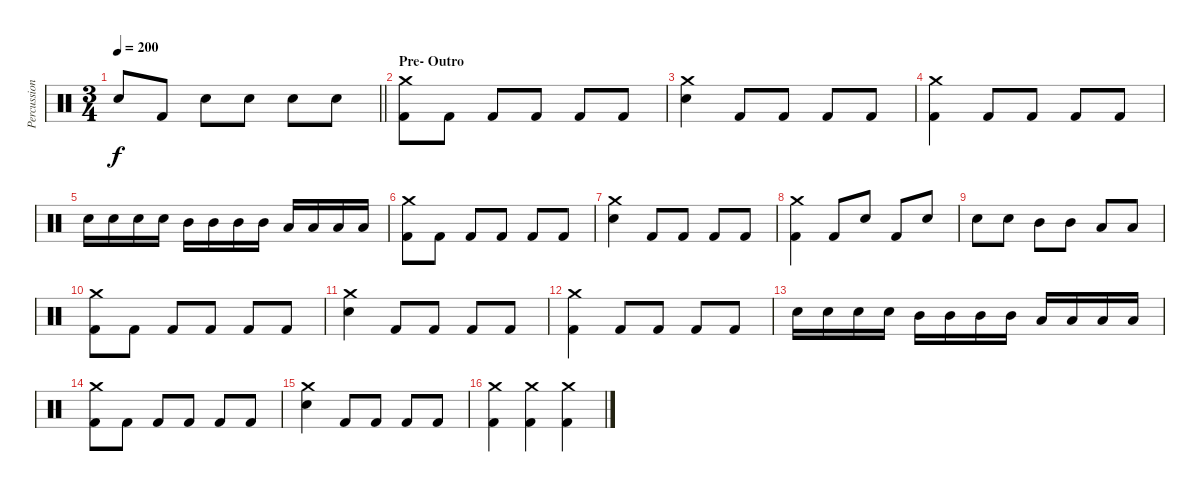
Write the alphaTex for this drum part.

\track ("Percussion" "Percussion") {instrument percussion}
\staff {score}
\articulation defaults
\ts (3 4)
\tempo 200
\clef neutral
\barLineRight lightlight
\ks c "Snare (hit) 2".8{dy f} "Kick (hit) 2".8 "Snare (hit) 2".8 "Snare (hit) 2".8 "Snare (hit) 2".8 "Snare (hit) 2".8
|
\section ("" "Pre- Outro")
("Crash medium (hit)" "Kick (hit) 2").8 "Kick (hit) 2".8 "Kick (hit) 2".8 "Kick (hit) 2".8 "Kick (hit) 2".8 "Kick (hit) 2".8 |
("Crash medium (hit)" "Snare (hit) 2").4 "Kick (hit) 2".8 "Kick (hit) 2".8 "Kick (hit) 2".8 "Kick (hit) 2".8 |
("Crash medium (hit)" "Kick (hit) 2").4 "Kick (hit) 2".8 "Kick (hit) 2".8 "Kick (hit) 2".8 "Kick (hit) 2".8 |
"Snare (hit) 2".16 "Snare (hit) 2".16 "Snare (hit) 2".16 "Snare (hit) 2".16 "Mid Tom (hit)".16 "Mid Tom (hit)".16 "Mid Tom (hit)".16 "Mid Tom (hit)".16 "Low Tom (hit)".16 "Low Tom (hit)".16 "Low Tom (hit)".16 "Low Tom (hit)".16 |
("Crash medium (hit)" "Kick (hit) 2").8 "Kick (hit) 2".8 "Kick (hit) 2".8 "Kick (hit) 2".8 "Kick (hit) 2".8 "Kick (hit) 2".8 |
("Crash medium (hit)" "Snare (hit) 2").4 "Kick (hit) 2".8 "Kick (hit) 2".8 "Kick (hit) 2".8 "Kick (hit) 2".8 |
("Crash medium (hit)" "Kick (hit) 2").4 "Kick (hit) 2".8 "Snare (hit) 2".8 "Kick (hit) 2".8 "Snare (hit) 2".8 |
"Snare (hit) 2".8 "Snare (hit) 2".8 "Mid Tom (hit)".8 "Mid Tom (hit)".8 "Low Tom (hit)".8 "Low Tom (hit)".8 |
("Crash medium (hit)" "Kick (hit) 2").8 "Kick (hit) 2".8 "Kick (hit) 2".8 "Kick (hit) 2".8 "Kick (hit) 2".8 "Kick (hit) 2".8 |
("Crash medium (hit)" "Snare (hit) 2").4 "Kick (hit) 2".8 "Kick (hit) 2".8 "Kick (hit) 2".8 "Kick (hit) 2".8 |
("Crash medium (hit)" "Kick (hit) 2").4 "Kick (hit) 2".8 "Kick (hit) 2".8 "Kick (hit) 2".8 "Kick (hit) 2".8 |
"Snare (hit) 2".16 "Snare (hit) 2".16 "Snare (hit) 2".16 "Snare (hit) 2".16 "Mid Tom (hit)".16 "Mid Tom (hit)".16 "Mid Tom (hit)".16 "Mid Tom (hit)".16 "Low Tom (hit)".16 "Low Tom (hit)".16 "Low Tom (hit)".16 "Low Tom (hit)".16 |
("Crash medium (hit)" "Kick (hit) 2").8 "Kick (hit) 2".8 "Kick (hit) 2".8 "Kick (hit) 2".8 "Kick (hit) 2".8 "Kick (hit) 2".8 |
("Crash medium (hit)" "Snare (hit) 2").4 "Kick (hit) 2".8 "Kick (hit) 2".8 "Kick (hit) 2".8 "Kick (hit) 2".8 |
("Crash medium (hit)" "Kick (hit) 2").4 ("Crash medium (hit)" "Kick (hit) 2").4 ("Crash medium (hit)" "Kick (hit) 2").4
